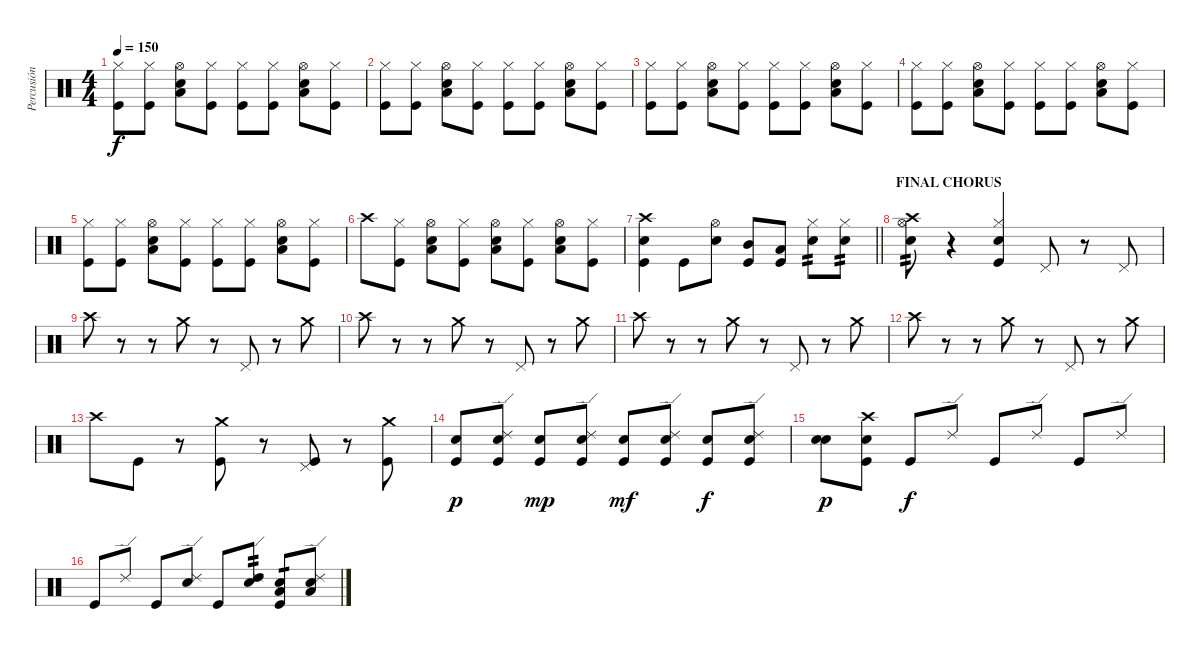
\track ("Percusión" "Percusión") {instrument percussion}
\staff {score}
\articulation defaults
\ts (4 4)
\tempo 150
\clef neutral
\ks c
("Kick (hit)" "Hi-Hat (closed)").8{dy f} ("Kick (hit)" "Hi-Hat (closed)").8 ("Low Floor Tom (hit)" "Snare (hit) 2" "Hi-Hat (open)").8 ("Kick (hit)" "Hi-Hat (closed)").8 ("Kick (hit)" "Hi-Hat (closed)").8 ("Kick (hit)" "Hi-Hat (closed)").8 ("Low Floor Tom (hit)" "Snare (hit) 2" "Hi-Hat (open)").8 ("Kick (hit)" "Hi-Hat (closed)").8 |
("Kick (hit)" "Hi-Hat (closed)").8 ("Kick (hit)" "Hi-Hat (closed)").8 ("Low Floor Tom (hit)" "Snare (hit) 2" "Hi-Hat (open)").8 ("Kick (hit)" "Hi-Hat (closed)").8 ("Kick (hit)" "Hi-Hat (closed)").8 ("Kick (hit)" "Hi-Hat (closed)").8 ("Low Floor Tom (hit)" "Snare (hit) 2" "Hi-Hat (open)").8 ("Kick (hit)" "Hi-Hat (closed)").8 |
("Kick (hit)" "Hi-Hat (closed)").8 ("Kick (hit)" "Hi-Hat (closed)").8 ("Low Floor Tom (hit)" "Snare (hit) 2" "Hi-Hat (open)").8 ("Kick (hit)" "Hi-Hat (closed)").8 ("Kick (hit)" "Hi-Hat (closed)").8 ("Kick (hit)" "Hi-Hat (closed)").8 ("Low Floor Tom (hit)" "Snare (hit) 2" "Hi-Hat (open)").8 ("Kick (hit)" "Hi-Hat (closed)").8 |
("Kick (hit)" "Hi-Hat (closed)").8 ("Kick (hit)" "Hi-Hat (closed)").8 ("Low Floor Tom (hit)" "Snare (hit) 2" "Hi-Hat (open)").8 ("Kick (hit)" "Hi-Hat (closed)").8 ("Kick (hit)" "Hi-Hat (closed)").8 ("Kick (hit)" "Hi-Hat (closed)").8 ("Low Floor Tom (hit)" "Snare (hit) 2" "Hi-Hat (open)").8 ("Kick (hit)" "Hi-Hat (closed)").8 |
("Kick (hit)" "Hi-Hat (closed)").8 ("Kick (hit)" "Hi-Hat (closed)").8 ("Low Floor Tom (hit)" "Snare (hit) 2" "Hi-Hat (open)").8 ("Kick (hit)" "Hi-Hat (closed)").8 ("Kick (hit)" "Hi-Hat (closed)").8 ("Kick (hit)" "Hi-Hat (closed)").8 ("Low Floor Tom (hit)" "Snare (hit) 2" "Hi-Hat (open)").8 ("Kick (hit)" "Hi-Hat (closed)").8 |
"Crash high (hit)".8 ("Kick (hit)" "Hi-Hat (closed)").8 ("Low Floor Tom (hit)" "Snare (hit) 2" "Hi-Hat (open)").8 ("Kick (hit)" "Hi-Hat (closed)").8 ("Low Floor Tom (hit)" "Snare (hit) 2" "Hi-Hat (open)").8 ("Kick (hit)" "Hi-Hat (closed)").8 ("Low Floor Tom (hit)" "Snare (hit) 2" "Hi-Hat (open)").8 ("Kick (hit)" "Hi-Hat (closed)").8 |
\barLineRight lightlight
("Crash high (hit)" "Kick (hit)" "Snare (hit) 2").4 "Kick (hit)".8 ("Snare (hit) 2" "Hi-Hat (open)").8 ("Mid Tom (hit)" "Kick (hit)").8 ("Low Floor Tom (hit)" "Kick (hit)").8 ("Snare (hit) 2" "Hi-Hat (closed)").8{tp 2} ("Snare (hit) 2" "Hi-Hat (closed)").8{tp 2} |
\section ("" "FINAL CHORUS")
("Crash high (hit)" "Snare (hit) 2" "Hi-Hat (open)").8{tp 2} r.4 ("Kick (hit)" "Snare (hit) 2" "Hi-Hat (closed)").4 "Pedal Hi-Hat (hit)".8 r.8 "Pedal Hi-Hat (hit)".8 |
"Crash high (hit)".8 r.8 r.8 "Crash medium (hit)".8 r.8 "Pedal Hi-Hat (hit)".8 r.8 "Crash medium (hit)".8 |
"Crash high (hit)".8 r.8 r.8 "Crash medium (hit)".8 r.8 "Pedal Hi-Hat (hit)".8 r.8 "Crash medium (hit)".8 |
"Crash high (hit)".8 r.8 r.8 "Crash medium (hit)".8 r.8 "Pedal Hi-Hat (hit)".8 r.8 "Crash medium (hit)".8 |
"Crash high (hit)".8 r.8 r.8 "Crash medium (hit)".8 r.8 "Pedal Hi-Hat (hit)".8 r.8 "Crash medium (hit)".8 |
"Crash high (hit)".8 "Kick (hit)".8 r.8 ("Crash medium (hit)" "Kick (hit)").8 r.8 ("Pedal Hi-Hat (hit)" "Kick (hit)").8 r.8 ("Crash medium (hit)" "Kick (hit)").8 |
("Snare (hit) 2" "Kick (hit)").8{dy p} ("Ride (edge) 2" "Snare (hit) 2" "Kick (hit)").8 ("Snare (hit) 2" "Kick (hit)").8{dy mp} ("Ride (edge) 2" "Snare (hit) 2" "Kick (hit)").8 ("Snare (hit) 2" "Kick (hit)").8{dy mf} ("Ride (edge) 2" "Snare (hit) 2" "Kick (hit)").8 ("Snare (hit) 2" "Kick (hit)").8{dy f} ("Ride (edge) 2" "Snare (hit) 2" "Kick (hit)").8 |
("Snare (hit) 2" "Snare (hit)").8{dy p} ("Crash high (hit)" "Snare (hit) 2" "Kick (hit)").8 "Kick (hit)".8{dy f} "Ride (edge) 2".8 "Kick (hit)".8 "Ride (edge) 2".8 "Kick (hit)".8 "Ride (edge) 2".8 |
"Kick (hit)".8 "Ride (edge) 2".8 "Kick (hit)".8 ("Ride (edge) 2" "Snare (hit) 2").8 "Kick (hit)".8 ("Ride (edge) 2" "High Tom (hit)" "Snare (hit) 2").8{tp 2} ("Low Tom (hit)" "Kick (hit)" "Snare (hit) 2").8{tp 1} ("Ride (edge) 2" "Low Floor Tom (hit)" "Snare (hit) 2").8
